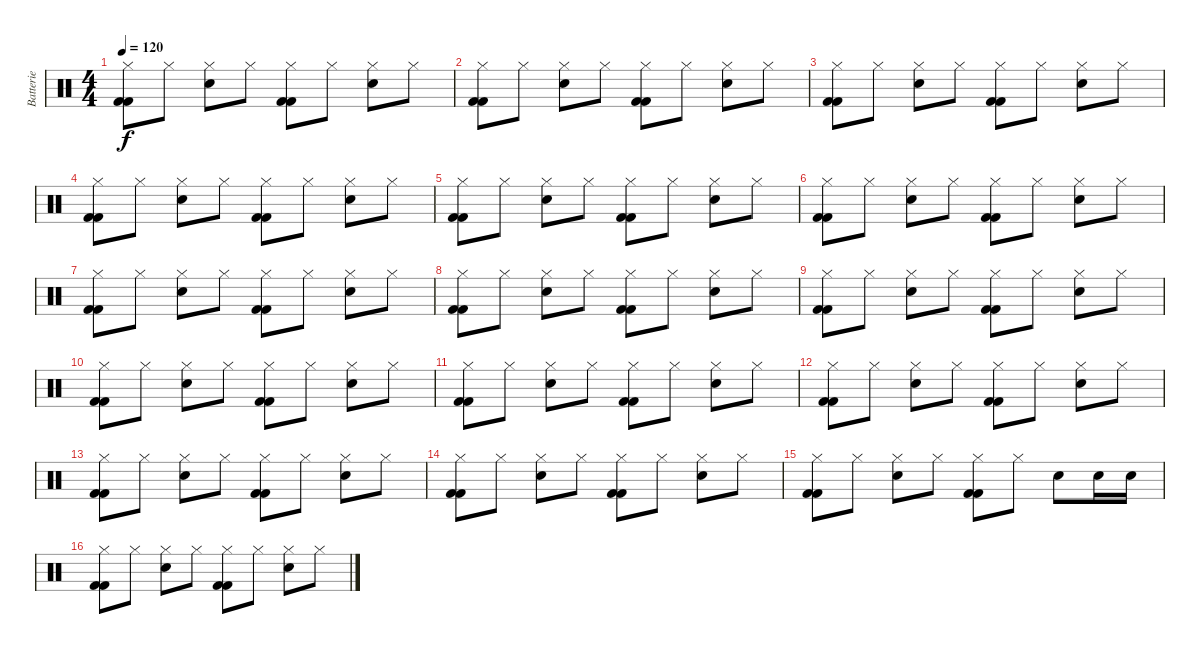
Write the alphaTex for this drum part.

\track ("Batterie" "Batterie") {instrument percussion}
\staff {score}
\articulation defaults
\ts (4 4)
\tempo 120
\clef neutral
\ks c
("Hi-Hat (closed)" "Kick (hit) 2" "Kick (hit) 2").8{dy f} "Hi-Hat (closed)".8 ("Hi-Hat (closed)" "Snare (hit) 2").8 "Hi-Hat (closed)".8 ("Hi-Hat (closed)" "Kick (hit) 2" "Kick (hit) 2").8 "Hi-Hat (closed)".8 ("Hi-Hat (closed)" "Snare (hit) 2").8 "Hi-Hat (closed)".8 |
("Hi-Hat (closed)" "Kick (hit) 2" "Kick (hit) 2").8 "Hi-Hat (closed)".8 ("Hi-Hat (closed)" "Snare (hit) 2").8 "Hi-Hat (closed)".8 ("Hi-Hat (closed)" "Kick (hit) 2" "Kick (hit) 2").8 "Hi-Hat (closed)".8 ("Hi-Hat (closed)" "Snare (hit) 2").8 "Hi-Hat (closed)".8 |
("Hi-Hat (closed)" "Kick (hit) 2" "Kick (hit) 2").8 "Hi-Hat (closed)".8 ("Hi-Hat (closed)" "Snare (hit) 2").8 "Hi-Hat (closed)".8 ("Hi-Hat (closed)" "Kick (hit) 2" "Kick (hit) 2").8 "Hi-Hat (closed)".8 ("Hi-Hat (closed)" "Snare (hit) 2").8 "Hi-Hat (closed)".8 |
("Hi-Hat (closed)" "Kick (hit) 2" "Kick (hit) 2").8 "Hi-Hat (closed)".8 ("Hi-Hat (closed)" "Snare (hit) 2").8 "Hi-Hat (closed)".8 ("Hi-Hat (closed)" "Kick (hit) 2" "Kick (hit) 2").8 "Hi-Hat (closed)".8 ("Hi-Hat (closed)" "Snare (hit) 2").8 "Hi-Hat (closed)".8 |
("Hi-Hat (closed)" "Kick (hit) 2" "Kick (hit) 2").8 "Hi-Hat (closed)".8 ("Hi-Hat (closed)" "Snare (hit) 2").8 "Hi-Hat (closed)".8 ("Hi-Hat (closed)" "Kick (hit) 2" "Kick (hit) 2").8 "Hi-Hat (closed)".8 ("Hi-Hat (closed)" "Snare (hit) 2").8 "Hi-Hat (closed)".8 |
("Hi-Hat (closed)" "Kick (hit) 2" "Kick (hit) 2").8 "Hi-Hat (closed)".8 ("Hi-Hat (closed)" "Snare (hit) 2").8 "Hi-Hat (closed)".8 ("Hi-Hat (closed)" "Kick (hit) 2" "Kick (hit) 2").8 "Hi-Hat (closed)".8 ("Hi-Hat (closed)" "Snare (hit) 2").8 "Hi-Hat (closed)".8 |
("Hi-Hat (closed)" "Kick (hit) 2" "Kick (hit) 2").8 "Hi-Hat (closed)".8 ("Hi-Hat (closed)" "Snare (hit) 2").8 "Hi-Hat (closed)".8 ("Hi-Hat (closed)" "Kick (hit) 2" "Kick (hit) 2").8 "Hi-Hat (closed)".8 ("Hi-Hat (closed)" "Snare (hit) 2").8 "Hi-Hat (closed)".8 |
("Hi-Hat (closed)" "Kick (hit) 2" "Kick (hit) 2").8 "Hi-Hat (closed)".8 ("Hi-Hat (closed)" "Snare (hit) 2").8 "Hi-Hat (closed)".8 ("Hi-Hat (closed)" "Kick (hit) 2" "Kick (hit) 2").8 "Hi-Hat (closed)".8 ("Hi-Hat (closed)" "Snare (hit) 2").8 "Hi-Hat (closed)".8 |
("Hi-Hat (closed)" "Kick (hit) 2" "Kick (hit) 2").8 "Hi-Hat (closed)".8 ("Hi-Hat (closed)" "Snare (hit) 2").8 "Hi-Hat (closed)".8 ("Hi-Hat (closed)" "Kick (hit) 2" "Kick (hit) 2").8 "Hi-Hat (closed)".8 ("Hi-Hat (closed)" "Snare (hit) 2").8 "Hi-Hat (closed)".8 |
("Hi-Hat (closed)" "Kick (hit) 2" "Kick (hit) 2").8 "Hi-Hat (closed)".8 ("Hi-Hat (closed)" "Snare (hit) 2").8 "Hi-Hat (closed)".8 ("Hi-Hat (closed)" "Kick (hit) 2" "Kick (hit) 2").8 "Hi-Hat (closed)".8 ("Hi-Hat (closed)" "Snare (hit) 2").8 "Hi-Hat (closed)".8 |
("Hi-Hat (closed)" "Kick (hit) 2" "Kick (hit) 2").8 "Hi-Hat (closed)".8 ("Hi-Hat (closed)" "Snare (hit) 2").8 "Hi-Hat (closed)".8 ("Hi-Hat (closed)" "Kick (hit) 2" "Kick (hit) 2").8 "Hi-Hat (closed)".8 ("Hi-Hat (closed)" "Snare (hit) 2").8 "Hi-Hat (closed)".8 |
("Hi-Hat (closed)" "Kick (hit) 2" "Kick (hit) 2").8 "Hi-Hat (closed)".8 ("Hi-Hat (closed)" "Snare (hit) 2").8 "Hi-Hat (closed)".8 ("Hi-Hat (closed)" "Kick (hit) 2" "Kick (hit) 2").8 "Hi-Hat (closed)".8 ("Hi-Hat (closed)" "Snare (hit) 2").8 "Hi-Hat (closed)".8 |
("Hi-Hat (closed)" "Kick (hit) 2" "Kick (hit) 2").8 "Hi-Hat (closed)".8 ("Hi-Hat (closed)" "Snare (hit) 2").8 "Hi-Hat (closed)".8 ("Hi-Hat (closed)" "Kick (hit) 2" "Kick (hit) 2").8 "Hi-Hat (closed)".8 ("Hi-Hat (closed)" "Snare (hit) 2").8 "Hi-Hat (closed)".8 |
("Hi-Hat (closed)" "Kick (hit) 2" "Kick (hit) 2").8 "Hi-Hat (closed)".8 ("Hi-Hat (closed)" "Snare (hit) 2").8 "Hi-Hat (closed)".8 ("Hi-Hat (closed)" "Kick (hit) 2" "Kick (hit) 2").8 "Hi-Hat (closed)".8 ("Hi-Hat (closed)" "Snare (hit) 2").8 "Hi-Hat (closed)".8 |
("Hi-Hat (closed)" "Kick (hit) 2" "Kick (hit) 2").8 "Hi-Hat (closed)".8 ("Hi-Hat (closed)" "Snare (hit) 2").8 "Hi-Hat (closed)".8 ("Hi-Hat (closed)" "Kick (hit) 2" "Kick (hit) 2").8 "Hi-Hat (closed)".8 "Snare (hit) 2".8 "Snare (hit) 2".16 "Snare (hit) 2".16 |
("Hi-Hat (closed)" "Kick (hit) 2" "Kick (hit) 2").8 "Hi-Hat (closed)".8 ("Hi-Hat (closed)" "Snare (hit) 2").8 "Hi-Hat (closed)".8 ("Hi-Hat (closed)" "Kick (hit) 2" "Kick (hit) 2").8 "Hi-Hat (closed)".8 ("Hi-Hat (closed)" "Snare (hit) 2").8 "Hi-Hat (closed)".8
